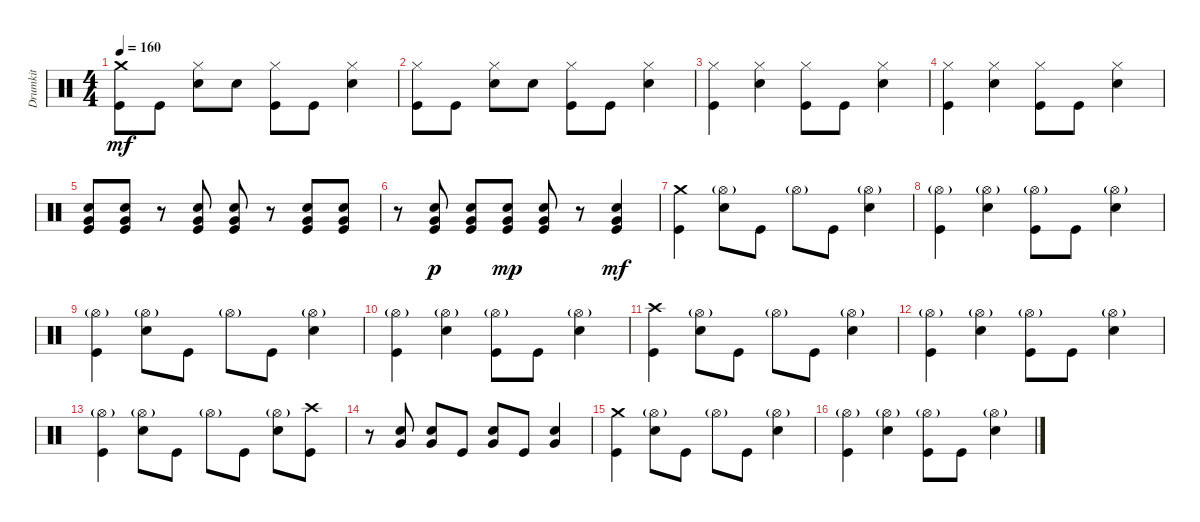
\track ("Drumkit" "Drumkit") {instrument percussion}
\staff {score}
\articulation defaults
\ts (4 4)
\tempo 160
\clef neutral
\ks c
("Crash medium (hit)" "Kick (hit)").8{dy mf} "Kick (hit)".8 ("Snare (hit) 2" "Hi-Hat (closed)").8 "Snare (hit) 2".8 ("Kick (hit)" "Hi-Hat (closed)").8 "Kick (hit)".8 ("Snare (hit) 2" "Hi-Hat (closed)").4 |
("Kick (hit)" "Hi-Hat (closed)").8 "Kick (hit)".8 ("Snare (hit) 2" "Hi-Hat (closed)").8 "Snare (hit) 2".8 ("Kick (hit)" "Hi-Hat (closed)").8 "Kick (hit)".8 ("Snare (hit) 2" "Hi-Hat (closed)").4 |
("Kick (hit)" "Hi-Hat (closed)").4 ("Hi-Hat (closed)" "Snare (hit) 2").4 ("Kick (hit)" "Hi-Hat (closed)").8 "Kick (hit)".8 ("Snare (hit) 2" "Hi-Hat (closed)").4 |
("Kick (hit)" "Hi-Hat (closed)").4 ("Hi-Hat (closed)" "Snare (hit) 2").4 ("Kick (hit)" "Hi-Hat (closed)").8 "Kick (hit)".8 ("Snare (hit) 2" "Hi-Hat (closed)").4 |
("Kick (hit)" "Very Low Tom (hit)" "Snare (hit) 2").8 ("Kick (hit)" "Very Low Tom (hit)" "Snare (hit) 2").8 r.8 ("Kick (hit)" "Very Low Tom (hit)" "Snare (hit) 2").8 ("Kick (hit)" "Very Low Tom (hit)" "Snare (hit) 2").8 r.8 ("Kick (hit)" "Very Low Tom (hit)" "Snare (hit) 2").8 ("Kick (hit)" "Very Low Tom (hit)" "Snare (hit) 2").8 |
r.8 ("Kick (hit)" "Very Low Tom (hit)" "Snare (hit) 2").8{dy p} ("Kick (hit)" "Very Low Tom (hit)" "Snare (hit) 2").8 ("Kick (hit)" "Very Low Tom (hit)" "Snare (hit) 2").8{dy mp} ("Kick (hit)" "Very Low Tom (hit)" "Snare (hit) 2").8 r.8 ("Kick (hit)" "Very Low Tom (hit)" "Snare (hit) 2").4{dy mf} |
("Kick (hit)" "Crash medium (hit)").4 ("Snare (hit) 2" "Hi-Hat (open)"{g}).8 "Kick (hit)".8 "Hi-Hat (open)"{g}.8 "Kick (hit)".8 ("Snare (hit) 2" "Hi-Hat (open)"{g}).4 |
("Kick (hit)" "Hi-Hat (open)"{g}).4 ("Hi-Hat (open)"{g} "Snare (hit) 2").4 ("Kick (hit)" "Hi-Hat (open)"{g}).8 "Kick (hit)".8 ("Snare (hit) 2" "Hi-Hat (open)"{g}).4 |
("Kick (hit)" "Hi-Hat (open)"{g}).4 ("Snare (hit) 2" "Hi-Hat (open)"{g}).8 "Kick (hit)".8 "Hi-Hat (open)"{g}.8 "Kick (hit)".8 ("Snare (hit) 2" "Hi-Hat (open)"{g}).4 |
("Kick (hit)" "Hi-Hat (open)"{g}).4 ("Hi-Hat (open)"{g} "Snare (hit) 2").4 ("Kick (hit)" "Hi-Hat (open)"{g}).8 "Kick (hit)".8 ("Snare (hit) 2" "Hi-Hat (open)"{g}).4 |
("Kick (hit)" "Crash high (hit)").4 ("Snare (hit) 2" "Hi-Hat (open)"{g}).8 "Kick (hit)".8 "Hi-Hat (open)"{g}.8 "Kick (hit)".8 ("Snare (hit) 2" "Hi-Hat (open)"{g}).4 |
("Kick (hit)" "Hi-Hat (open)"{g}).4 ("Hi-Hat (open)"{g} "Snare (hit) 2").4 ("Kick (hit)" "Hi-Hat (open)"{g}).8 "Kick (hit)".8 ("Snare (hit) 2" "Hi-Hat (open)"{g}).4 |
("Kick (hit)" "Hi-Hat (open)"{g}).4 ("Snare (hit) 2" "Hi-Hat (open)"{g}).8 "Kick (hit)".8 "Hi-Hat (open)"{g}.8 "Kick (hit)".8 ("Snare (hit) 2" "Hi-Hat (open)"{g}).8 ("Kick (hit)" "Crash high (hit)").8 |
r.8 ("Snare (hit) 2" "Very Low Tom (hit)").8 ("Snare (hit) 2" "Very Low Tom (hit)").8 "Kick (hit)".8 ("Snare (hit) 2" "Very Low Tom (hit)").8 "Kick (hit)".8 ("Snare (hit) 2" "Very Low Tom (hit)").4 |
("Kick (hit)" "Crash medium (hit)").4 ("Snare (hit) 2" "Hi-Hat (open)"{g}).8 "Kick (hit)".8 "Hi-Hat (open)"{g}.8 "Kick (hit)".8 ("Snare (hit) 2" "Hi-Hat (open)"{g}).4 |
("Kick (hit)" "Hi-Hat (open)"{g}).4 ("Hi-Hat (open)"{g} "Snare (hit) 2").4 ("Kick (hit)" "Hi-Hat (open)"{g}).8 "Kick (hit)".8 ("Snare (hit) 2" "Hi-Hat (open)"{g}).4
